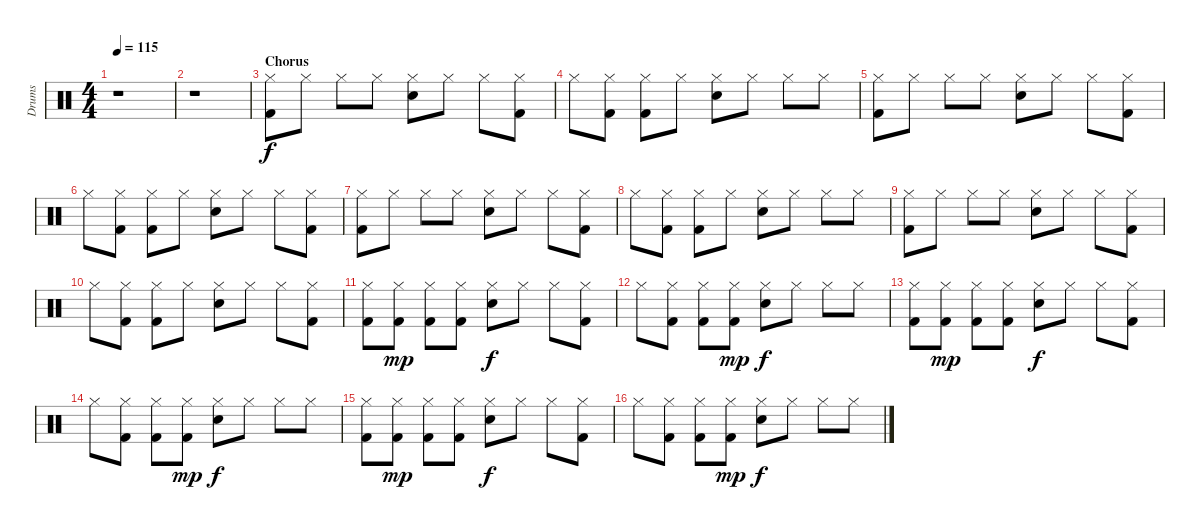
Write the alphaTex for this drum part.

\track ("Drums" "Drums") {instrument percussion}
\staff {score}
\articulation defaults
\ts (4 4)
\tempo 115
\clef neutral
\ks c
r.1{dy f} |
r.1 |
\section ("" "Chorus")
("Hi-Hat (closed)" "Kick (hit) 2").8 "Hi-Hat (closed)".8 "Hi-Hat (closed)".8 "Hi-Hat (closed)".8 ("Hi-Hat (closed)" "Snare (hit) 2").8 "Hi-Hat (closed)".8 "Hi-Hat (closed)".8 ("Hi-Hat (closed)" "Kick (hit) 2").8 |
"Hi-Hat (closed)".8 ("Hi-Hat (closed)" "Kick (hit) 2").8 ("Hi-Hat (closed)" "Kick (hit) 2").8 "Hi-Hat (closed)".8 ("Hi-Hat (closed)" "Snare (hit) 2").8 "Hi-Hat (closed)".8 "Hi-Hat (closed)".8 "Hi-Hat (closed)".8 |
("Hi-Hat (closed)" "Kick (hit) 2").8 "Hi-Hat (closed)".8 "Hi-Hat (closed)".8 "Hi-Hat (closed)".8 ("Hi-Hat (closed)" "Snare (hit) 2").8 "Hi-Hat (closed)".8 "Hi-Hat (closed)".8 ("Hi-Hat (closed)" "Kick (hit) 2").8 |
"Hi-Hat (closed)".8 ("Hi-Hat (closed)" "Kick (hit) 2").8 ("Hi-Hat (closed)" "Kick (hit) 2").8 "Hi-Hat (closed)".8 ("Hi-Hat (closed)" "Snare (hit) 2").8 "Hi-Hat (closed)".8 "Hi-Hat (closed)".8 ("Hi-Hat (closed)" "Kick (hit) 2").8 |
("Hi-Hat (closed)" "Kick (hit) 2").8 "Hi-Hat (closed)".8 "Hi-Hat (closed)".8 "Hi-Hat (closed)".8 ("Hi-Hat (closed)" "Snare (hit) 2").8 "Hi-Hat (closed)".8 "Hi-Hat (closed)".8 ("Hi-Hat (closed)" "Kick (hit) 2").8 |
"Hi-Hat (closed)".8 ("Hi-Hat (closed)" "Kick (hit) 2").8 ("Hi-Hat (closed)" "Kick (hit) 2").8 "Hi-Hat (closed)".8 ("Hi-Hat (closed)" "Snare (hit) 2").8 "Hi-Hat (closed)".8 "Hi-Hat (closed)".8 "Hi-Hat (closed)".8 |
("Hi-Hat (closed)" "Kick (hit) 2").8 "Hi-Hat (closed)".8 "Hi-Hat (closed)".8 "Hi-Hat (closed)".8 ("Hi-Hat (closed)" "Snare (hit) 2").8 "Hi-Hat (closed)".8 "Hi-Hat (closed)".8 ("Hi-Hat (closed)" "Kick (hit) 2").8 |
"Hi-Hat (closed)".8 ("Hi-Hat (closed)" "Kick (hit) 2").8 ("Hi-Hat (closed)" "Kick (hit) 2").8 "Hi-Hat (closed)".8 ("Hi-Hat (closed)" "Snare (hit) 2").8 "Hi-Hat (closed)".8 "Hi-Hat (closed)".8 ("Hi-Hat (closed)" "Kick (hit) 2").8 |
("Hi-Hat (closed)" "Kick (hit) 2").8 ("Hi-Hat (closed)" "Kick (hit) 2").8{dy mp} ("Hi-Hat (closed)" "Kick (hit) 2").8 ("Hi-Hat (closed)" "Kick (hit) 2").8 ("Hi-Hat (closed)" "Snare (hit) 2").8{dy f} "Hi-Hat (closed)".8 "Hi-Hat (closed)".8 ("Hi-Hat (closed)" "Kick (hit) 2").8 |
"Hi-Hat (closed)".8 ("Hi-Hat (closed)" "Kick (hit) 2").8 ("Hi-Hat (closed)" "Kick (hit) 2").8 ("Hi-Hat (closed)" "Kick (hit) 2").8{dy mp} ("Hi-Hat (closed)" "Snare (hit) 2").8{dy f} "Hi-Hat (closed)".8 "Hi-Hat (closed)".8 "Hi-Hat (closed)".8 |
("Hi-Hat (closed)" "Kick (hit) 2").8 ("Hi-Hat (closed)" "Kick (hit) 2").8{dy mp} ("Hi-Hat (closed)" "Kick (hit) 2").8 ("Hi-Hat (closed)" "Kick (hit) 2").8 ("Hi-Hat (closed)" "Snare (hit) 2").8{dy f} "Hi-Hat (closed)".8 "Hi-Hat (closed)".8 ("Hi-Hat (closed)" "Kick (hit) 2").8 |
"Hi-Hat (closed)".8 ("Hi-Hat (closed)" "Kick (hit) 2").8 ("Hi-Hat (closed)" "Kick (hit) 2").8 ("Hi-Hat (closed)" "Kick (hit) 2").8{dy mp} ("Hi-Hat (closed)" "Snare (hit) 2").8{dy f} "Hi-Hat (closed)".8 "Hi-Hat (closed)".8 "Hi-Hat (closed)".8 |
("Hi-Hat (closed)" "Kick (hit) 2").8 ("Hi-Hat (closed)" "Kick (hit) 2").8{dy mp} ("Hi-Hat (closed)" "Kick (hit) 2").8 ("Hi-Hat (closed)" "Kick (hit) 2").8 ("Hi-Hat (closed)" "Snare (hit) 2").8{dy f} "Hi-Hat (closed)".8 "Hi-Hat (closed)".8 ("Hi-Hat (closed)" "Kick (hit) 2").8 |
"Hi-Hat (closed)".8 ("Hi-Hat (closed)" "Kick (hit) 2").8 ("Hi-Hat (closed)" "Kick (hit) 2").8 ("Hi-Hat (closed)" "Kick (hit) 2").8{dy mp} ("Hi-Hat (closed)" "Snare (hit) 2").8{dy f} "Hi-Hat (closed)".8 "Hi-Hat (closed)".8 "Hi-Hat (closed)".8
